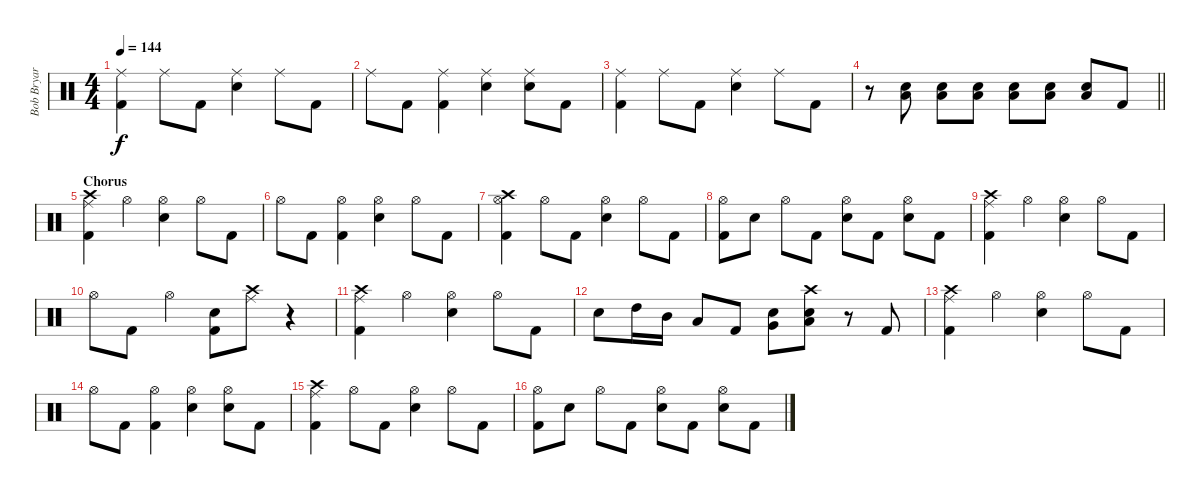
\track ("Bob Bryar" "Bob Bryar") {instrument percussion}
\staff {score}
\articulation defaults
\ts (4 4)
\tempo 144
\clef neutral
\ks c
("Ride (middle)" "Kick (hit) 2").4{dy f} "Ride (middle)".8 "Kick (hit) 2".8 ("Ride (middle)" "Snare (hit) 2").4 "Ride (middle)".8 "Kick (hit) 2".8 |
"Ride (middle)".8 "Kick (hit) 2".8 ("Kick (hit) 2" "Ride (middle)").4 ("Ride (middle)" "Snare (hit) 2").4 ("Snare (hit) 2" "Ride (middle)").8 "Kick (hit) 2".8 |
("Ride (middle)" "Kick (hit) 2").4 "Ride (middle)".8 "Kick (hit) 2".8 ("Ride (middle)" "Snare (hit) 2").4 "Ride (middle)".8 "Kick (hit) 2".8 |
\barLineRight lightlight
r.8 ("Low Floor Tom (hit)" "Snare (hit) 2").8 ("Low Floor Tom (hit)" "Snare (hit) 2").8 ("Low Floor Tom (hit)" "Snare (hit) 2").8 ("Low Floor Tom (hit)" "Snare (hit) 2").8 ("Low Floor Tom (hit)" "Snare (hit) 2").8 ("Low Floor Tom (hit)" "Snare (hit) 2").8 "Kick (hit) 2".8 |
\section ("" "Chorus")
("Crash high (hit)" "Ride (middle)" "Kick (hit) 2").4 "Hi-Hat (open)".4 ("Hi-Hat (open)" "Snare (hit) 2").4 "Hi-Hat (open)".8 "Kick (hit) 2".8 |
"Hi-Hat (open)".8 "Kick (hit) 2".8 ("Kick (hit) 2" "Hi-Hat (open)").4 ("Snare (hit) 2" "Hi-Hat (open)").4 "Hi-Hat (open)".8 "Kick (hit) 2".8 |
("Hi-Hat (open)" "Crash high (hit)" "Kick (hit) 2").4 "Hi-Hat (open)".8 "Kick (hit) 2".8 ("Hi-Hat (open)" "Snare (hit) 2").4 "Hi-Hat (open)".8 "Kick (hit) 2".8 |
("Hi-Hat (open)" "Kick (hit) 2").8 "Snare (hit) 2".8 "Hi-Hat (open)".8 "Kick (hit) 2".8 ("Snare (hit) 2" "Hi-Hat (open)").8 "Kick (hit) 2".8 ("Hi-Hat (open)" "Snare (hit) 2").8 "Kick (hit) 2".8 |
("Crash high (hit)" "Ride (middle)" "Kick (hit) 2").4 "Hi-Hat (open)".4 ("Hi-Hat (open)" "Snare (hit) 2").4 "Hi-Hat (open)".8 "Kick (hit) 2".8 |
"Hi-Hat (open)".8 "Kick (hit) 2".8 "Hi-Hat (open)".4 ("Kick (hit) 2" "Snare (hit) 2").8 ("Crash high (hit)" "Ride (middle)").8 r.4 |
("Crash high (hit)" "Ride (middle)" "Kick (hit) 2").4 "Hi-Hat (open)".4 ("Hi-Hat (open)" "Snare (hit) 2").4 "Hi-Hat (open)".8 "Kick (hit) 2".8 |
"Snare (hit) 2".8 "High Tom (hit)".16 "Mid Tom (hit)".16 "Low Tom (hit)".8 "Kick (hit) 2".8 ("Snare (hit) 2" "Very Low Tom (hit)").8 ("Snare (hit) 2" "Low Floor Tom (hit)" "Crash high (hit)").8 r.8 "Kick (hit) 2".8 |
("Crash high (hit)" "Ride (middle)" "Kick (hit) 2").4 "Hi-Hat (open)".4 ("Hi-Hat (open)" "Snare (hit) 2").4 "Hi-Hat (open)".8 "Kick (hit) 2".8 |
"Hi-Hat (open)".8 "Kick (hit) 2".8 ("Kick (hit) 2" "Hi-Hat (open)").4 ("Hi-Hat (open)" "Snare (hit) 2").4 ("Hi-Hat (open)" "Snare (hit) 2").8 "Kick (hit) 2".8 |
("Crash high (hit)" "Ride (middle)" "Kick (hit) 2").4 "Hi-Hat (open)".8 "Kick (hit) 2".8 ("Hi-Hat (open)" "Snare (hit) 2").4 "Hi-Hat (open)".8 "Kick (hit) 2".8 |
("Hi-Hat (open)" "Kick (hit) 2").8 "Snare (hit) 2".8 "Hi-Hat (open)".8 "Kick (hit) 2".8 ("Snare (hit) 2" "Hi-Hat (open)").8 "Kick (hit) 2".8 ("Hi-Hat (open)" "Snare (hit) 2").8 "Kick (hit) 2".8
